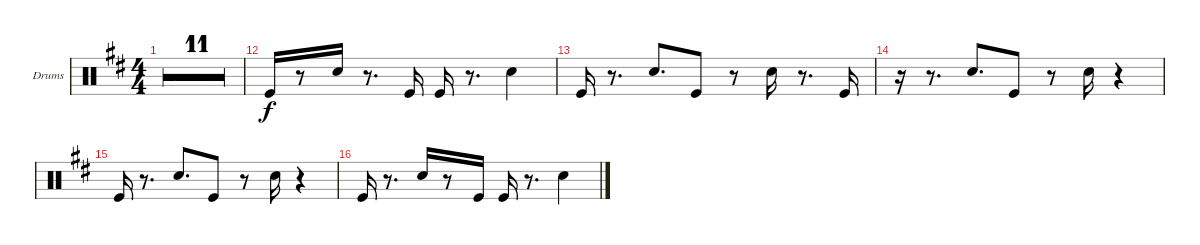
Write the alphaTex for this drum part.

\defaultSystemsLayout 4
\bracketExtendMode groupsimilarinstruments
\firstSystemTrackNameOrientation horizontal
\otherSystemsTrackNameOrientation horizontal
\track ("Drumkit" "Drums") {multiBarRest instrument percussion}
\staff {score}
\articulation defaults
\ts (4 4)
\tempo 120
\clef neutral
\scale
0.514894
\ks d
|
\scale
0.242553 |
\scale
0.242553 |
\scale
0.333333 |
\scale
0.333333 |
\scale
0.333333 |
\scale
0.333333 |
\scale
0.333333 |
\scale
0.333333 |
\ts (3 4)
\scale
0.404682 |
\ts (4 4)
\scale
0.404682 |
\scale
0.190635 "Kick (hit)".16 r.8 "Snare (hit) 2".16 r.8{d} "Kick (hit)".16 "Kick (hit)".16 r.8{d} "Snare (hit) 2".4 |
\scale
0.333333 "Kick (hit)".16 r.8{d} "Snare (hit) 2".8{d} "Kick (hit)".8 r.8 "Snare (hit) 2".16 r.8{d} "Kick (hit)".16 |
\scale
0.333333 r.16 r.8{d} "Snare (hit) 2".8{d} "Kick (hit)".8 r.8 "Snare (hit) 2".16 r.4 |
\scale
0.333333 "Kick (hit)".16 r.8{d} "Snare (hit) 2".8{d} "Kick (hit)".8 r.8 "Snare (hit) 2".16 r.4 |
\scale
0.333333 "Kick (hit)".16 r.8{d} "Snare (hit) 2".16 r.8 "Kick (hit)".16 "Kick (hit)".16 r.8{d} "Snare (hit) 2".4
